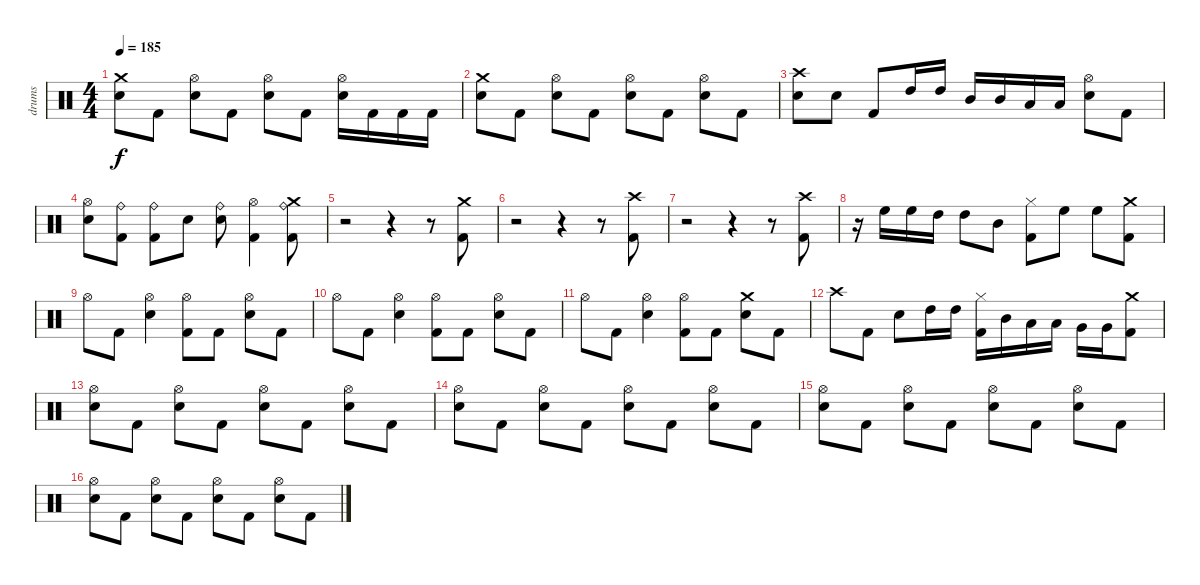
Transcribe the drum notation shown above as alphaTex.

\track ("drums" "drums") {instrument percussion}
\staff {score}
\articulation defaults
\ts (4 4)
\tempo 185
\clef neutral
\ks c
("Crash medium (hit)" "Electric Snare (hit)").8{dy f} "Kick (hit) 2".8 ("Hi-Hat (open)" "Electric Snare (hit)").8 "Kick (hit) 2".8 ("Hi-Hat (open)" "Electric Snare (hit)").8 "Kick (hit) 2".8 ("Hi-Hat (open)" "Electric Snare (hit)").16 "Kick (hit) 2".16 "Kick (hit) 2".16 "Kick (hit) 2".16 |
("Crash medium (hit)" "Electric Snare (hit)").8 "Kick (hit) 2".8 ("Hi-Hat (open)" "Electric Snare (hit)").8 "Kick (hit) 2".8 ("Hi-Hat (open)" "Electric Snare (hit)").8 "Kick (hit) 2".8 ("Hi-Hat (open)" "Electric Snare (hit)").8 "Kick (hit) 2".8 |
("Crash high (hit)" "Electric Snare (hit)").8 "Electric Snare (hit)".8 "Kick (hit) 2".8 "High Tom (hit)".16 "High Tom (hit)".16 "Mid Tom (hit)".16 "Mid Tom (hit)".16 "Low Tom (hit)".16 "Low Tom (hit)".16 ("Hi-Hat (open)" "Electric Snare (hit)").8 "Kick (hit) 2".8 |
("Hi-Hat (open)" "Electric Snare (hit)").8 ("Ride (bell)" "Kick (hit) 2").8 ("Ride (bell)" "Kick (hit) 2").8 "Electric Snare (hit)".8 ("Ride (bell)" "Electric Snare (hit)").8 ("Hi-Hat (open)" "Kick (hit) 2").4 ("Crash medium (hit)" "Ride (bell)" "Kick (hit) 2").8 |
r.2 r.4 r.8 ("Crash medium (hit)" "Kick (hit) 2").8 |
r.2 r.4 r.8 ("Crash high (hit)" "Kick (hit) 2").8 |
r.2 r.4 r.8 ("Crash high (hit)" "Kick (hit) 2").8 |
r.16 "High Floor Tom (hit)".16 "High Floor Tom (hit)".16 "High Tom (hit)".16 "High Tom (hit)".8 "Mid Tom (hit)".8 ("Hi-Hat (closed)" "Kick (hit) 2").8 "High Floor Tom (hit)".8 "High Floor Tom (hit)".8 ("Crash medium (hit)" "Kick (hit) 2").8 |
"Hi-Hat (open)".8 "Kick (hit) 2".8 ("Hi-Hat (open)" "Electric Snare (hit)").4 ("Hi-Hat (open)" "Kick (hit) 2").8 "Kick (hit) 2".8 ("Hi-Hat (open)" "Electric Snare (hit)").8 "Kick (hit) 2".8 |
"Hi-Hat (open)".8 "Kick (hit) 2".8 ("Hi-Hat (open)" "Electric Snare (hit)").4 ("Hi-Hat (open)" "Kick (hit) 2").8 "Kick (hit) 2".8 ("Hi-Hat (open)" "Electric Snare (hit)").8 "Kick (hit) 2".8 |
"Hi-Hat (open)".8 "Kick (hit) 2".8 ("Hi-Hat (open)" "Electric Snare (hit)").4 ("Hi-Hat (open)" "Kick (hit) 2").8 "Kick (hit) 2".8 ("Crash medium (hit)" "Electric Snare (hit)").8 "Kick (hit) 2".8 |
"Crash high (hit)".8 "Kick (hit) 2".8 "Electric Snare (hit)".8 "High Tom (hit)".16 "High Tom (hit)".16 ("Hi-Hat (closed)" "Kick (hit) 2").16 "Mid Tom (hit)".16 "Low Tom (hit)".16 "Low Tom (hit)".16 "Very Low Tom (hit)".16 "Very Low Tom (hit)".16 ("Crash medium (hit)" "Kick (hit) 2").8 |
("Hi-Hat (open)" "Electric Snare (hit)").8 "Kick (hit) 2".8 ("Hi-Hat (open)" "Electric Snare (hit)").8 "Kick (hit) 2".8 ("Hi-Hat (open)" "Electric Snare (hit)").8 "Kick (hit) 2".8 ("Hi-Hat (open)" "Electric Snare (hit)").8 "Kick (hit) 2".8 |
("Hi-Hat (open)" "Electric Snare (hit)").8 "Kick (hit) 2".8 ("Hi-Hat (open)" "Electric Snare (hit)").8 "Kick (hit) 2".8 ("Hi-Hat (open)" "Electric Snare (hit)").8 "Kick (hit) 2".8 ("Hi-Hat (open)" "Electric Snare (hit)").8 "Kick (hit) 2".8 |
("Hi-Hat (open)" "Electric Snare (hit)").8 "Kick (hit) 2".8 ("Hi-Hat (open)" "Electric Snare (hit)").8 "Kick (hit) 2".8 ("Hi-Hat (open)" "Electric Snare (hit)").8 "Kick (hit) 2".8 ("Hi-Hat (open)" "Electric Snare (hit)").8 "Kick (hit) 2".8 |
("Hi-Hat (open)" "Electric Snare (hit)").8 "Kick (hit) 2".8 ("Hi-Hat (open)" "Electric Snare (hit)").8 "Kick (hit) 2".8 ("Hi-Hat (open)" "Electric Snare (hit)").8 "Kick (hit) 2".8 ("Hi-Hat (open)" "Electric Snare (hit)").8 "Kick (hit) 2".8
